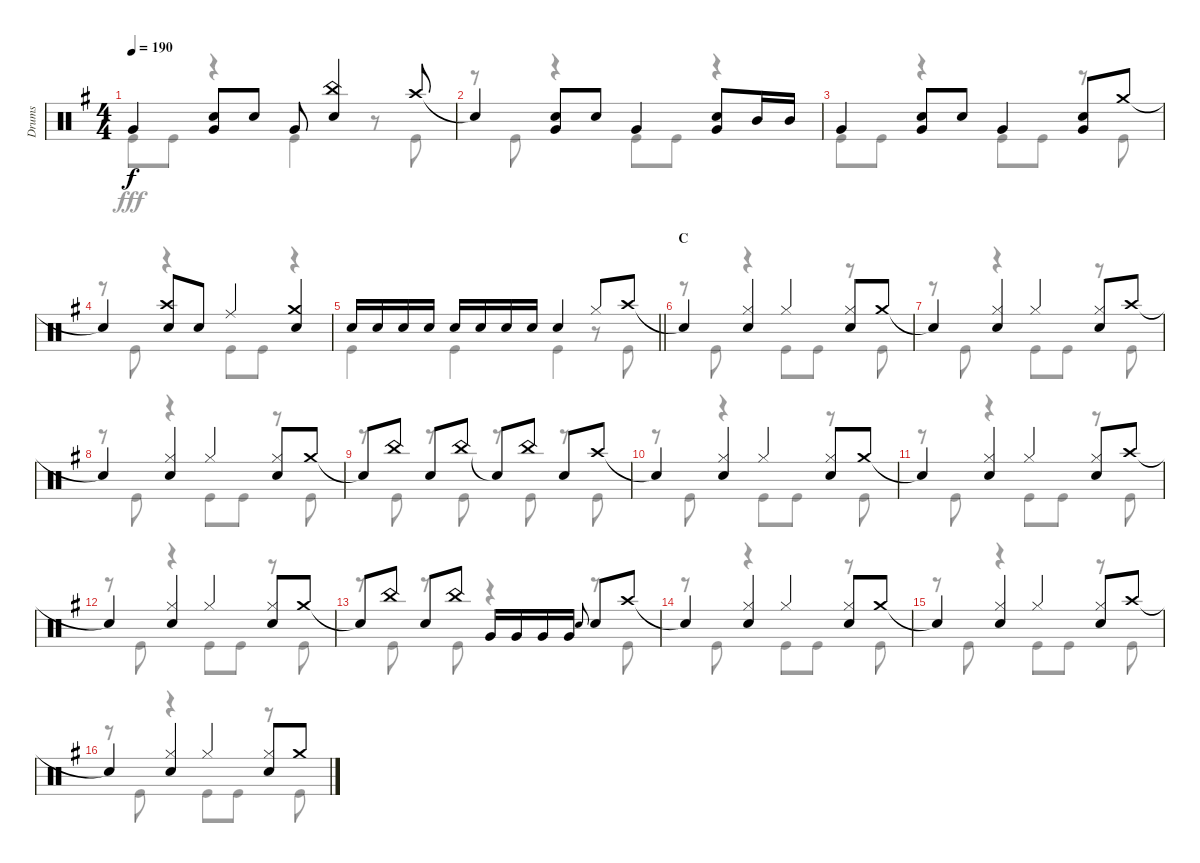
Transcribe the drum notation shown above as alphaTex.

\track ("Drums" "Drums") {instrument percussion}
\staff {score}
\articulation defaults
\voice
\ts (4 4)
\tempo 190
\clef neutral
\ks g "Very Low Tom (hit)".4{dy f}
("Snare (hit) 2" "Very Low Tom (hit)").8 "Snare (hit) 2".8 "Very Low Tom (hit)".8 ("China (hit)" "Snare (hit) 2").4 "Crash high (hit)".8 |
"Snare (hit)"{t}.4 ("Snare (hit) 2" "Very Low Tom (hit)").8 "Snare (hit) 2".8 "Very Low Tom (hit)".4 ("Snare (hit) 2" "Very Low Tom (hit)").8 "Mid Tom (hit)".16 "Mid Tom (hit)".16 |
"Very Low Tom (hit)".4 ("Snare (hit) 2" "Very Low Tom (hit)").8 "Snare (hit) 2".8 "Very Low Tom (hit)".4 ("Snare (hit) 2" "Very Low Tom (hit)").8 "Crash medium (hit)".8 |
"Snare (hit)"{t}.4 ("Crash high (hit)" "Snare (hit) 2").8 "Snare (hit) 2".8 "Ride (middle)".4 ("Crash medium (hit)" "Snare (hit) 2").4 |
\barLineRight lightlight "Snare (hit) 2".16 "Snare (hit) 2".16 "Snare (hit) 2".16 "Snare (hit) 2".16 "Snare (hit) 2".16 "Snare (hit) 2".16 "Snare (hit) 2".16 "Snare (hit) 2".16 "Snare (hit) 2".4 "Hi-Hat (closed)".8 "Crash high (hit)".8
|
\section ("" "C")
"Snare (hit)"{t}.4 ("Hi-Hat (closed)" "Snare (hit) 2").4 "Hi-Hat (closed)".4 ("Hi-Hat (closed)" "Snare (hit) 2").8 "Crash medium (hit)".8 |
"Snare (hit)"{t}.4 ("Hi-Hat (closed)" "Snare (hit) 2").4 "Hi-Hat (closed)".4 ("Hi-Hat (closed)" "Snare (hit) 2").8 "Crash high (hit)".8 |
"Snare (hit)"{t}.4 ("Hi-Hat (closed)" "Snare (hit) 2").4 "Hi-Hat (closed)".4 ("Hi-Hat (closed)" "Snare (hit) 2").8 "Crash medium (hit)".8 |
"Snare (hit)"{t}.8 "China (hit)".8 "Snare (hit) 2".8 "China (hit)".8 "Snare (hit)"{t}.8 "China (hit)".8 "Snare (hit) 2".8 "Crash high (hit)".8 |
"Snare (hit)"{t}.4 ("Hi-Hat (closed)" "Snare (hit) 2").4 "Hi-Hat (closed)".4 ("Hi-Hat (closed)" "Snare (hit) 2").8 "Crash medium (hit)".8 |
"Snare (hit)"{t}.4 ("Hi-Hat (closed)" "Snare (hit) 2").4 "Hi-Hat (closed)".4 ("Hi-Hat (closed)" "Snare (hit) 2").8 "Crash high (hit)".8 |
"Snare (hit)"{t}.4 ("Hi-Hat (closed)" "Snare (hit) 2").4 "Hi-Hat (closed)".4 ("Hi-Hat (closed)" "Snare (hit) 2").8 "Crash medium (hit)".8 |
"Snare (hit)"{t}.8 "China (hit)".8 "Snare (hit) 2".8 "China (hit)".8 "Very Low Tom (hit)".16 "Very Low Tom (hit)".16 "Very Low Tom (hit)".16 "Very Low Tom (hit)".16 "Snare (hit) 2".8{gr onbeat} "Snare (hit) 2".8 "Crash high (hit)".8 |
"Snare (hit)"{t}.4 ("Hi-Hat (closed)" "Snare (hit) 2").4 "Hi-Hat (closed)".4 ("Hi-Hat (closed)" "Snare (hit) 2").8 "Crash medium (hit)".8 |
"Snare (hit)"{t}.4 ("Hi-Hat (closed)" "Snare (hit) 2").4 "Hi-Hat (closed)".4 ("Hi-Hat (closed)" "Snare (hit) 2").8 "Crash high (hit)".8 |
"Snare (hit)"{t}.4 ("Hi-Hat (closed)" "Snare (hit) 2").4 "Hi-Hat (closed)".4 ("Hi-Hat (closed)" "Snare (hit) 2").8 "Crash medium (hit)".8
\voice
\clef neutral
\ottava regular
\simile none
\ks g "Kick (hit)".8{dy fff} "Kick (hit)".8
r.4 "Kick (hit)".4 r.8 "Kick (hit)".8 |
r.8 "Kick (hit)".8 r.4 "Kick (hit)".8 "Kick (hit)".8 r.4 |
"Kick (hit)".8 "Kick (hit)".8 r.4 "Kick (hit)".8 "Kick (hit)".8 r.8 "Kick (hit)".8 |
r.8 "Kick (hit)".8 r.4 "Kick (hit)".8 "Kick (hit)".8 r.4 |
\barLineRight lightlight "Kick (hit)".4 "Kick (hit)".4 "Kick (hit)".4
r.8 "Kick (hit)".8 |
r.8 "Kick (hit)".8 r.4 "Kick (hit)".8 "Kick (hit)".8 r.8 "Kick (hit)".8 |
r.8 "Kick (hit)".8 r.4 "Kick (hit)".8 "Kick (hit)".8 r.8 "Kick (hit)".8 |
r.8 "Kick (hit)".8 r.4 "Kick (hit)".8 "Kick (hit)".8 r.8 "Kick (hit)".8 |
r.8 "Kick (hit)".8 r.8 "Kick (hit)".8 r.8 "Kick (hit)".8 r.8 "Kick (hit)".8 |
r.8 "Kick (hit)".8 r.4 "Kick (hit)".8 "Kick (hit)".8 r.8 "Kick (hit)".8 |
r.8 "Kick (hit)".8 r.4 "Kick (hit)".8 "Kick (hit)".8 r.8 "Kick (hit)".8 |
r.8 "Kick (hit)".8 r.4 "Kick (hit)".8 "Kick (hit)".8 r.8 "Kick (hit)".8 |
r.8 "Kick (hit)".8 r.8 "Kick (hit)".8 r.4 r.8 "Kick (hit)".8 |
r.8 "Kick (hit)".8 r.4 "Kick (hit)".8 "Kick (hit)".8 r.8 "Kick (hit)".8 |
r.8 "Kick (hit)".8 r.4 "Kick (hit)".8 "Kick (hit)".8 r.8 "Kick (hit)".8 |
r.8 "Kick (hit)".8 r.4 "Kick (hit)".8 "Kick (hit)".8 r.8 "Kick (hit)".8
